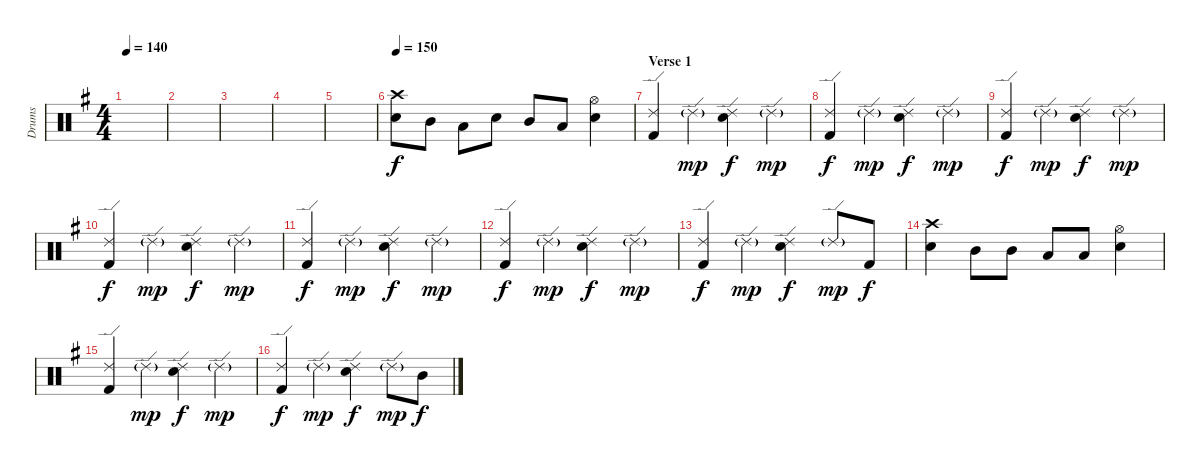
\track ("Drums" "Drums") {instrument percussion}
\staff {score}
\articulation defaults
\ts (4 4)
\tempo 140
\clef neutral
\ks g
|
|
|
|
|
\tempo 150
("Crash high (hit)" "Electric Snare (hit)").8 "Mid Tom (hit)".8 "Low Tom (hit)".8 "Electric Snare (hit)".8 "Mid Tom (hit)".8 "Low Tom (hit)".8 ("Hi-Hat (open)" "Electric Snare (hit)").4 |
\section ("" "Verse 1")
("Ride (edge) 2" "Kick (hit) 2").4 "Ride (edge) 2"{g}.4{dy mp} ("Ride (edge) 2" "Electric Snare (hit)").4{dy f} "Ride (edge) 2"{g}.4{dy mp} |
("Ride (edge) 2" "Kick (hit) 2").4{dy f} "Ride (edge) 2"{g}.4{dy mp} ("Ride (edge) 2" "Electric Snare (hit)").4{dy f} "Ride (edge) 2"{g}.4{dy mp} |
("Ride (edge) 2" "Kick (hit) 2").4{dy f} "Ride (edge) 2"{g}.4{dy mp} ("Ride (edge) 2" "Electric Snare (hit)").4{dy f} "Ride (edge) 2"{g}.4{dy mp} |
("Ride (edge) 2" "Kick (hit) 2").4{dy f} "Ride (edge) 2"{g}.4{dy mp} ("Ride (edge) 2" "Electric Snare (hit)").4{dy f} "Ride (edge) 2"{g}.4{dy mp} |
("Ride (edge) 2" "Kick (hit) 2").4{dy f} "Ride (edge) 2"{g}.4{dy mp} ("Ride (edge) 2" "Electric Snare (hit)").4{dy f} "Ride (edge) 2"{g}.4{dy mp} |
("Ride (edge) 2" "Kick (hit) 2").4{dy f} "Ride (edge) 2"{g}.4{dy mp} ("Ride (edge) 2" "Electric Snare (hit)").4{dy f} "Ride (edge) 2"{g}.4{dy mp} |
("Ride (edge) 2" "Kick (hit) 2").4{dy f} "Ride (edge) 2"{g}.4{dy mp} ("Ride (edge) 2" "Electric Snare (hit)").4{dy f} "Ride (edge) 2"{g}.8{dy mp} "Kick (hit) 2".8{dy f} |
("Crash high (hit)" "Electric Snare (hit)").4 "Mid Tom (hit)".8 "Mid Tom (hit)".8 "Low Tom (hit)".8 "Low Tom (hit)".8 ("Hi-Hat (open)" "Electric Snare (hit)").4 |
("Ride (edge) 2" "Kick (hit) 2").4 "Ride (edge) 2"{g}.4{dy mp} ("Ride (edge) 2" "Electric Snare (hit)").4{dy f} "Ride (edge) 2"{g}.4{dy mp} |
("Ride (edge) 2" "Kick (hit) 2").4{dy f} "Ride (edge) 2"{g}.4{dy mp} ("Ride (edge) 2" "Electric Snare (hit)").4{dy f} "Ride (edge) 2"{g}.8{dy mp} "Mid Tom (hit)".8{dy f}
